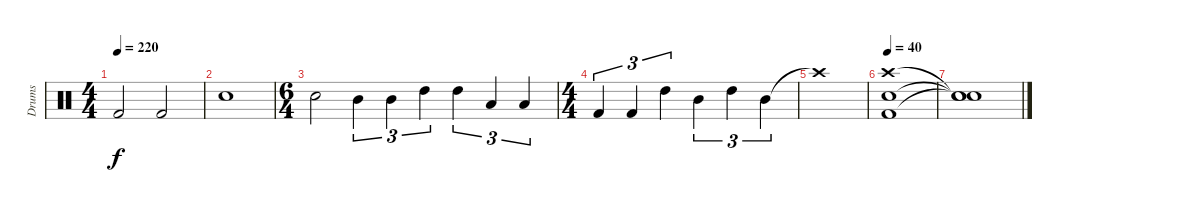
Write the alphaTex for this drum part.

\track ("Drums" "Drums") {instrument percussion}
\staff {score}
\articulation defaults
\ts (4 4)
\tempo 220
\clef neutral
\ks c "Kick (hit) 2".2{dy f} "Kick (hit) 2".2
|
"Electric Snare (hit)".1 |
\ts (6 4)
"Electric Snare (hit)".2 "Mid Tom (hit)".4{tu (3 2)} "Mid Tom (hit)".4{tu (3 2)} "High Tom (hit)".4{tu (3 2)} "High Tom (hit)".4{tu (3 2)} "Low Tom (hit)".4{tu (3 2)} "Low Tom (hit)".4{tu (3 2)} |
\ts (4 4)
"Kick (hit) 2".4{tu (3 2)} "Kick (hit) 2".4{tu (3 2)} "High Tom (hit)".4{tu (3 2)} "Mid Tom (hit)".4{tu (3 2)} "High Tom (hit)".4{tu (3 2)} "Mid Tom (hit)".4{tu (3 2)} |
"Crash high (hit)"{t}.1 |
\tempo 40
("Kick (hit) 2" "Electric Snare (hit)" "Crash high (hit)").1 |
("Snare (hit)"{t} "Snare (hit)"{t} "Snare (hit)"{t}).1
